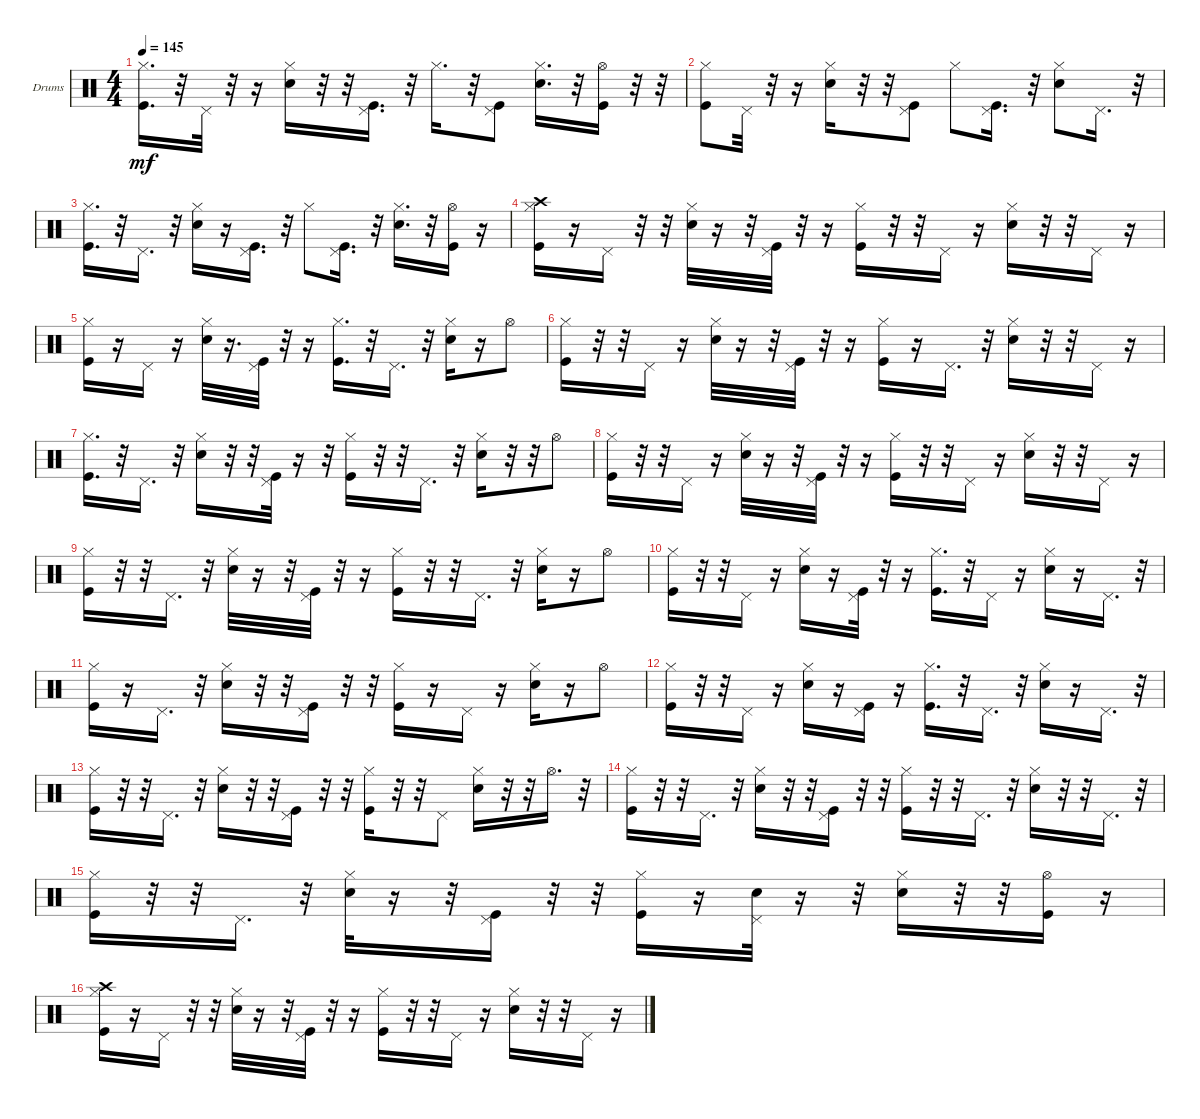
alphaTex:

\defaultSystemsLayout 4
\bracketExtendMode groupsimilarinstruments
\firstSystemTrackNameOrientation horizontal
\otherSystemsTrackNameOrientation horizontal
\track ("Drumkit" "Drums") {instrument percussion}
\staff {score}
\articulation defaults
\ts (4 4)
\tempo 145
\clef neutral
\scale
0.333333
\ks c
("Hi-Hat (closed)" "Kick (hit)").16{d dy mf} r.32 "Pedal Hi-Hat (hit)".32 r.32 r.16 ("Snare (hit) 2" "Hi-Hat (closed)").16 r.32 r.32 ("Pedal Hi-Hat (hit)" "Kick (hit)").16{d} r.32 "Hi-Hat (closed)".16{d} r.32 ("Pedal Hi-Hat (hit)" "Kick (hit)").8 ("Snare (hit) 2" "Hi-Hat (closed)").16{d} r.32 ("Hi-Hat (open)" "Kick (hit)").16 r.32 r.32 |
\scale
0.333333 ("Kick (hit)" "Hi-Hat (closed)").8 "Pedal Hi-Hat (hit)".32 r.32 r.16 ("Snare (hit) 2" "Hi-Hat (closed)").16 r.32 r.32 ("Pedal Hi-Hat (hit)" "Kick (hit)").8 "Hi-Hat (closed)".8 ("Kick (hit)" "Pedal Hi-Hat (hit)").16{d} r.32 ("Snare (hit) 2" "Hi-Hat (closed)").8 "Pedal Hi-Hat (hit)".16{d} r.32 |
\scale
0.333333 ("Hi-Hat (closed)" "Kick (hit)").16{d} r.32 "Pedal Hi-Hat (hit)".16{d} r.32 ("Snare (hit) 2" "Hi-Hat (closed)").16 r.16 ("Pedal Hi-Hat (hit)" "Kick (hit)").16{d} r.32 "Hi-Hat (closed)".8 ("Pedal Hi-Hat (hit)" "Kick (hit)").16{d} r.32 ("Snare (hit) 2" "Hi-Hat (closed)").16{d} r.32 ("Hi-Hat (open)" "Kick (hit)").16 r.16 |
\scale
0.333333 ("Crash high (hit)" "Kick (hit)" "Hi-Hat (closed)").16 r.16 "Pedal Hi-Hat (hit)".16 r.32 r.32 ("Snare (hit) 2" "Hi-Hat (closed)").32 r.16 r.32 ("Kick (hit)" "Pedal Hi-Hat (hit)").32 r.32 r.16 ("Kick (hit)" "Hi-Hat (closed)").16 r.32 r.32 "Pedal Hi-Hat (hit)".16 r.16 ("Snare (hit) 2" "Hi-Hat (closed)").16 r.32 r.32 "Pedal Hi-Hat (hit)".16 r.16 |
\scale
0.333333 ("Kick (hit)" "Hi-Hat (closed)").16 r.16 "Pedal Hi-Hat (hit)".16 r.16 ("Snare (hit) 2" "Hi-Hat (closed)").32 r.16{d} ("Pedal Hi-Hat (hit)" "Kick (hit)").32 r.32 r.16 ("Hi-Hat (closed)" "Kick (hit)").16{d} r.32 "Pedal Hi-Hat (hit)".16{d} r.32 ("Snare (hit) 2" "Hi-Hat (closed)").16 r.16 "Hi-Hat (open)".8 |
\scale
0.333333 ("Kick (hit)" "Hi-Hat (closed)").16 r.32 r.32 "Pedal Hi-Hat (hit)".16 r.16 ("Snare (hit) 2" "Hi-Hat (closed)").32 r.16 r.32 ("Kick (hit)" "Pedal Hi-Hat (hit)").32 r.32 r.16 ("Hi-Hat (closed)" "Kick (hit)").16 r.16 "Pedal Hi-Hat (hit)".16{d} r.32 ("Snare (hit) 2" "Hi-Hat (closed)").16 r.32 r.32 "Pedal Hi-Hat (hit)".16 r.16 |
\scale
0.333333 ("Hi-Hat (closed)" "Kick (hit)").16{d} r.32 "Pedal Hi-Hat (hit)".16{d} r.32 ("Snare (hit) 2" "Hi-Hat (closed)").16 r.32 r.32 ("Pedal Hi-Hat (hit)" "Kick (hit)").32 r.16 r.32 ("Hi-Hat (closed)" "Kick (hit)").16 r.32 r.32 "Pedal Hi-Hat (hit)".16{d} r.32 ("Snare (hit) 2" "Hi-Hat (closed)").16 r.32 r.32 "Hi-Hat (open)".8 |
\scale
0.333333 ("Kick (hit)" "Hi-Hat (closed)").16 r.32 r.32 "Pedal Hi-Hat (hit)".16 r.16 ("Snare (hit) 2" "Hi-Hat (closed)").32 r.16 r.32 ("Kick (hit)" "Pedal Hi-Hat (hit)").32 r.32 r.16 ("Kick (hit)" "Hi-Hat (closed)").16 r.32 r.32 "Pedal Hi-Hat (hit)".16 r.16 ("Snare (hit) 2" "Hi-Hat (closed)").16 r.32 r.32 "Pedal Hi-Hat (hit)".16 r.16 |
\scale
0.333333 ("Kick (hit)" "Hi-Hat (closed)").16 r.32 r.32 "Pedal Hi-Hat (hit)".16{d} r.32 ("Snare (hit) 2" "Hi-Hat (closed)").32 r.16 r.32 ("Kick (hit)" "Pedal Hi-Hat (hit)").32 r.32 r.16 ("Hi-Hat (closed)" "Kick (hit)").16 r.32 r.32 "Pedal Hi-Hat (hit)".16{d} r.32 ("Snare (hit) 2" "Hi-Hat (closed)").16 r.16 "Hi-Hat (open)".8 |
\scale
0.333333 ("Kick (hit)" "Hi-Hat (closed)").16 r.32 r.32 "Pedal Hi-Hat (hit)".16 r.16 ("Snare (hit) 2" "Hi-Hat (closed)").16 r.16 ("Kick (hit)" "Pedal Hi-Hat (hit)").32 r.32 r.16 ("Kick (hit)" "Hi-Hat (closed)").16{d} r.32 "Pedal Hi-Hat (hit)".16 r.16 ("Snare (hit) 2" "Hi-Hat (closed)").16 r.16 "Pedal Hi-Hat (hit)".16{d} r.32 |
\scale
0.333333 ("Kick (hit)" "Hi-Hat (closed)").16 r.16 "Pedal Hi-Hat (hit)".16{d} r.32 ("Snare (hit) 2" "Hi-Hat (closed)").16 r.32 r.32 ("Pedal Hi-Hat (hit)" "Kick (hit)").16 r.32 r.32 ("Hi-Hat (closed)" "Kick (hit)").16 r.16 "Pedal Hi-Hat (hit)".16 r.16 ("Snare (hit) 2" "Hi-Hat (closed)").16 r.16 "Hi-Hat (open)".8 |
\scale
0.333333 ("Hi-Hat (closed)" "Kick (hit)").16 r.32 r.32 "Pedal Hi-Hat (hit)".16 r.16 ("Snare (hit) 2" "Hi-Hat (closed)").16 r.16 ("Kick (hit)" "Pedal Hi-Hat (hit)").16 r.16 ("Hi-Hat (closed)" "Kick (hit)").16{d} r.32 "Pedal Hi-Hat (hit)".16{d} r.32 ("Snare (hit) 2" "Hi-Hat (closed)").16 r.16 "Pedal Hi-Hat (hit)".16{d} r.32 |
\scale
0.333333 ("Hi-Hat (closed)" "Kick (hit)").16 r.32 r.32 "Pedal Hi-Hat (hit)".16{d} r.32 ("Snare (hit) 2" "Hi-Hat (closed)").16 r.32 r.32 ("Pedal Hi-Hat (hit)" "Kick (hit)").16 r.32 r.32 ("Hi-Hat (closed)" "Kick (hit)").16 r.32 r.32 "Pedal Hi-Hat (hit)".8 ("Snare (hit) 2" "Hi-Hat (closed)").16 r.32 r.32 "Hi-Hat (open)".16{d} r.32 |
\scale
0.333333 ("Kick (hit)" "Hi-Hat (closed)").16 r.32 r.32 "Pedal Hi-Hat (hit)".16{d} r.32 ("Snare (hit) 2" "Hi-Hat (closed)").16 r.32 r.32 ("Kick (hit)" "Pedal Hi-Hat (hit)").16 r.32 r.32 ("Hi-Hat (closed)" "Kick (hit)").16 r.32 r.32 "Pedal Hi-Hat (hit)".16{d} r.32 ("Snare (hit) 2" "Hi-Hat (closed)").16 r.32 r.32 "Pedal Hi-Hat (hit)".16{d} r.32 |
\scale
0.333333 ("Kick (hit)" "Hi-Hat (closed)").16 r.32 r.32 "Pedal Hi-Hat (hit)".16{d} r.32 ("Snare (hit) 2" "Hi-Hat (closed)").32 r.16 r.32 ("Pedal Hi-Hat (hit)" "Kick (hit)").16 r.32 r.32 ("Hi-Hat (closed)" "Kick (hit)").16 r.16 ("Snare (hit) 2" "Pedal Hi-Hat (hit)").32 r.16 r.32 ("Snare (hit) 2" "Hi-Hat (closed)").16 r.32 r.32 ("Kick (hit)" "Hi-Hat (open)").16 r.16 |
\scale
0.333333 ("Crash high (hit)" "Kick (hit)" "Hi-Hat (closed)").16 r.16 "Pedal Hi-Hat (hit)".16 r.32 r.32 ("Snare (hit) 2" "Hi-Hat (closed)").32 r.16 r.32 ("Kick (hit)" "Pedal Hi-Hat (hit)").32 r.32 r.16 ("Kick (hit)" "Hi-Hat (closed)").16 r.32 r.32 "Pedal Hi-Hat (hit)".16 r.16 ("Snare (hit) 2" "Hi-Hat (closed)").16 r.32 r.32 "Pedal Hi-Hat (hit)".16 r.16
